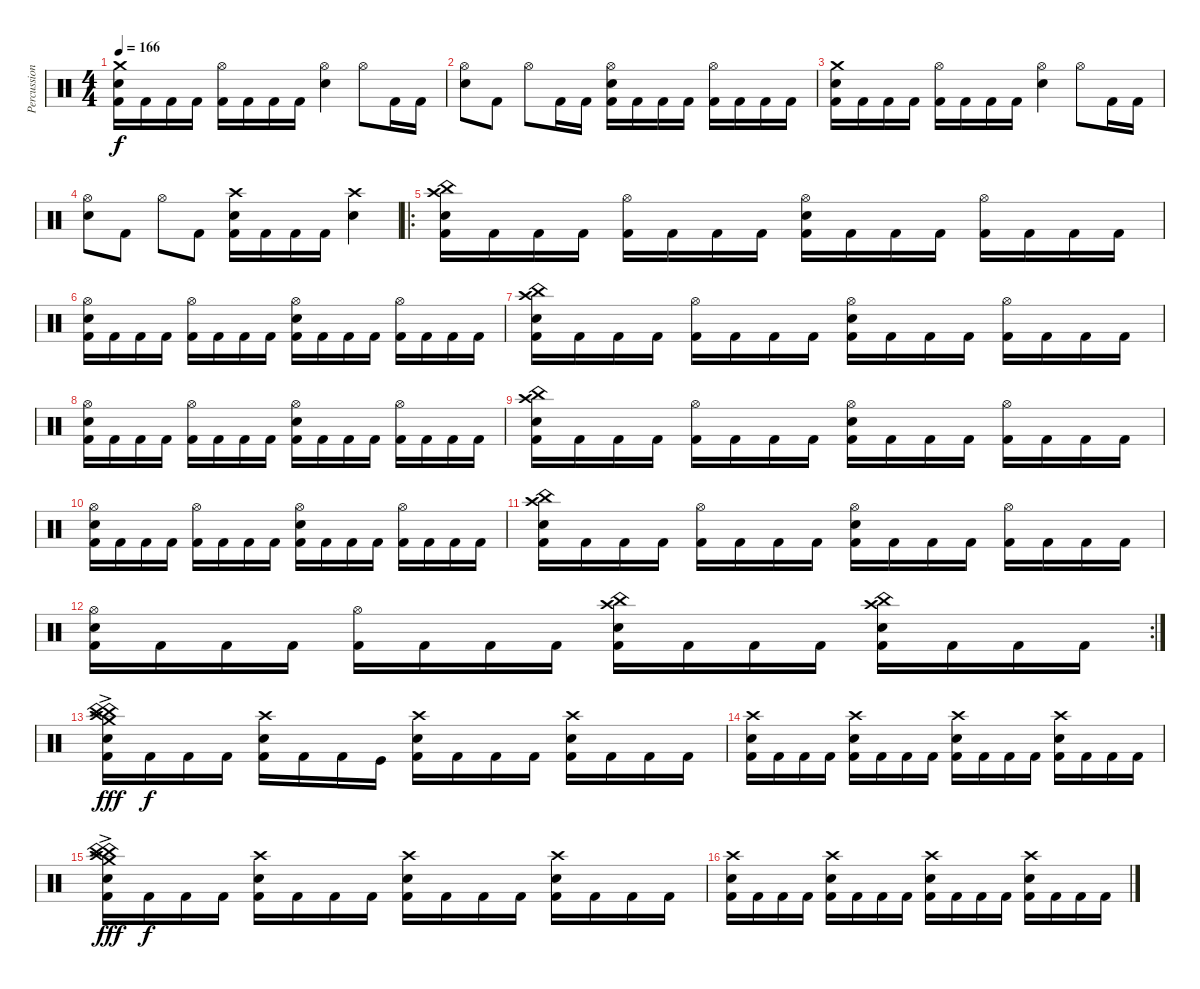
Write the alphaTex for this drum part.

\track ("Percussion" "Percussion") {instrument percussion}
\staff {score}
\articulation defaults
\ts (4 4)
\tempo 166
\clef neutral
\ks c
("Crash medium (hit)" "Electric Snare (hit)" "Kick (hit) 2").16{dy f} "Kick (hit) 2".16 "Kick (hit) 2".16 "Kick (hit) 2".16 ("Hi-Hat (open)" "Kick (hit) 2").16 "Kick (hit) 2".16 "Kick (hit) 2".16 "Kick (hit) 2".16 ("Hi-Hat (open)" "Electric Snare (hit)").4 "Hi-Hat (open)".8 "Kick (hit) 2".16 "Kick (hit) 2".16 |
("Hi-Hat (open)" "Electric Snare (hit)").8 "Kick (hit) 2".8 "Hi-Hat (open)".8 "Kick (hit) 2".16 "Kick (hit) 2".16 ("Hi-Hat (open)" "Electric Snare (hit)" "Kick (hit) 2").16 "Kick (hit) 2".16 "Kick (hit) 2".16 "Kick (hit) 2".16 ("Hi-Hat (open)" "Kick (hit) 2").16 "Kick (hit) 2".16 "Kick (hit) 2".16 "Kick (hit) 2".16 |
("Crash medium (hit)" "Electric Snare (hit)" "Kick (hit) 2").16 "Kick (hit) 2".16 "Kick (hit) 2".16 "Kick (hit) 2".16 ("Hi-Hat (open)" "Kick (hit) 2").16 "Kick (hit) 2".16 "Kick (hit) 2".16 "Kick (hit) 2".16 ("Hi-Hat (open)" "Electric Snare (hit)").4 "Hi-Hat (open)".8 "Kick (hit) 2".16 "Kick (hit) 2".16 |
("Hi-Hat (open)" "Electric Snare (hit)").8 "Kick (hit) 2".8 "Hi-Hat (open)".8 "Kick (hit) 2".8 ("Crash high (hit)" "Electric Snare (hit)" "Kick (hit) 2").16 "Kick (hit) 2".16 "Kick (hit) 2".16 "Kick (hit) 2".16 ("Crash high (hit)" "Electric Snare (hit)").4 |
\ro
("Crash high (hit)" "China (hit)" "Electric Snare (hit)" "Kick (hit) 2").16 "Kick (hit) 2".16 "Kick (hit) 2".16 "Kick (hit) 2".16 ("Hi-Hat (open)" "Kick (hit) 2").16 "Kick (hit) 2".16 "Kick (hit) 2".16 "Kick (hit) 2".16 ("Hi-Hat (open)" "Electric Snare (hit)" "Kick (hit) 2").16 "Kick (hit) 2".16 "Kick (hit) 2".16 "Kick (hit) 2".16 ("Hi-Hat (open)" "Kick (hit) 2").16 "Kick (hit) 2".16 "Kick (hit) 2".16 "Kick (hit) 2".16 |
("Hi-Hat (open)" "Electric Snare (hit)" "Kick (hit) 2").16 "Kick (hit) 2".16 "Kick (hit) 2".16 "Kick (hit) 2".16 ("Hi-Hat (open)" "Kick (hit) 2").16 "Kick (hit) 2".16 "Kick (hit) 2".16 "Kick (hit) 2".16 ("Hi-Hat (open)" "Electric Snare (hit)" "Kick (hit) 2").16 "Kick (hit) 2".16 "Kick (hit) 2".16 "Kick (hit) 2".16 ("Hi-Hat (open)" "Kick (hit) 2").16 "Kick (hit) 2".16 "Kick (hit) 2".16 "Kick (hit) 2".16 |
("Crash high (hit)" "China (hit)" "Electric Snare (hit)" "Kick (hit) 2").16 "Kick (hit) 2".16 "Kick (hit) 2".16 "Kick (hit) 2".16 ("Hi-Hat (open)" "Kick (hit) 2").16 "Kick (hit) 2".16 "Kick (hit) 2".16 "Kick (hit) 2".16 ("Hi-Hat (open)" "Electric Snare (hit)" "Kick (hit) 2").16 "Kick (hit) 2".16 "Kick (hit) 2".16 "Kick (hit) 2".16 ("Hi-Hat (open)" "Kick (hit) 2").16 "Kick (hit) 2".16 "Kick (hit) 2".16 "Kick (hit) 2".16 |
("Hi-Hat (open)" "Electric Snare (hit)" "Kick (hit) 2").16 "Kick (hit) 2".16 "Kick (hit) 2".16 "Kick (hit) 2".16 ("Hi-Hat (open)" "Kick (hit) 2").16 "Kick (hit) 2".16 "Kick (hit) 2".16 "Kick (hit) 2".16 ("Hi-Hat (open)" "Electric Snare (hit)" "Kick (hit) 2").16 "Kick (hit) 2".16 "Kick (hit) 2".16 "Kick (hit) 2".16 ("Hi-Hat (open)" "Kick (hit) 2").16 "Kick (hit) 2".16 "Kick (hit) 2".16 "Kick (hit) 2".16 |
("Crash high (hit)" "China (hit)" "Electric Snare (hit)" "Kick (hit) 2").16 "Kick (hit) 2".16 "Kick (hit) 2".16 "Kick (hit) 2".16 ("Hi-Hat (open)" "Kick (hit) 2").16 "Kick (hit) 2".16 "Kick (hit) 2".16 "Kick (hit) 2".16 ("Hi-Hat (open)" "Electric Snare (hit)" "Kick (hit) 2").16 "Kick (hit) 2".16 "Kick (hit) 2".16 "Kick (hit) 2".16 ("Hi-Hat (open)" "Kick (hit) 2").16 "Kick (hit) 2".16 "Kick (hit) 2".16 "Kick (hit) 2".16 |
("Hi-Hat (open)" "Electric Snare (hit)" "Kick (hit) 2").16 "Kick (hit) 2".16 "Kick (hit) 2".16 "Kick (hit) 2".16 ("Hi-Hat (open)" "Kick (hit) 2").16 "Kick (hit) 2".16 "Kick (hit) 2".16 "Kick (hit) 2".16 ("Hi-Hat (open)" "Electric Snare (hit)" "Kick (hit) 2").16 "Kick (hit) 2".16 "Kick (hit) 2".16 "Kick (hit) 2".16 ("Hi-Hat (open)" "Kick (hit) 2").16 "Kick (hit) 2".16 "Kick (hit) 2".16 "Kick (hit) 2".16 |
("Crash high (hit)" "China (hit)" "Electric Snare (hit)" "Kick (hit) 2").16 "Kick (hit) 2".16 "Kick (hit) 2".16 "Kick (hit) 2".16 ("Hi-Hat (open)" "Kick (hit) 2").16 "Kick (hit) 2".16 "Kick (hit) 2".16 "Kick (hit) 2".16 ("Hi-Hat (open)" "Electric Snare (hit)" "Kick (hit) 2").16 "Kick (hit) 2".16 "Kick (hit) 2".16 "Kick (hit) 2".16 ("Hi-Hat (open)" "Kick (hit) 2").16 "Kick (hit) 2".16 "Kick (hit) 2".16 "Kick (hit) 2".16 |
\rc 2
("Hi-Hat (open)" "Electric Snare (hit)" "Kick (hit) 2").16 "Kick (hit) 2".16 "Kick (hit) 2".16 "Kick (hit) 2".16 ("Hi-Hat (open)" "Kick (hit) 2").16 "Kick (hit) 2".16 "Kick (hit) 2".16 "Kick (hit) 2".16 ("Crash high (hit)" "China (hit)" "Electric Snare (hit)" "Kick (hit) 2").16 "Kick (hit) 2".16 "Kick (hit) 2".16 "Kick (hit) 2".16 ("Crash high (hit)" "China (hit)" "Electric Snare (hit)" "Kick (hit) 2").16 "Kick (hit) 2".16 "Kick (hit) 2".16 "Kick (hit) 2".16 |
("Crash high (hit)" "China (hit)"{ac} "Electric Snare (hit)" "China (hit)"{ac} "Crash medium (hit)" "Kick (hit) 2").16{dy fff} "Kick (hit) 2".16{dy f} "Kick (hit) 2".16 "Kick (hit) 2".16 ("Crash high (hit)" "Electric Snare (hit)" "Kick (hit) 2").16 "Kick (hit) 2".16 "Kick (hit) 2".16 "Kick (hit)".16 ("Crash high (hit)" "Electric Snare (hit)" "Kick (hit) 2").16 "Kick (hit) 2".16 "Kick (hit) 2".16 "Kick (hit) 2".16 ("Crash high (hit)" "Electric Snare (hit)" "Kick (hit) 2").16 "Kick (hit) 2".16 "Kick (hit) 2".16 "Kick (hit) 2".16 |
("Crash high (hit)" "Electric Snare (hit)" "Kick (hit) 2").16 "Kick (hit) 2".16 "Kick (hit) 2".16 "Kick (hit) 2".16 ("Crash high (hit)" "Electric Snare (hit)" "Kick (hit) 2").16 "Kick (hit) 2".16 "Kick (hit) 2".16 "Kick (hit) 2".16 ("Crash high (hit)" "Electric Snare (hit)" "Kick (hit) 2").16 "Kick (hit) 2".16 "Kick (hit) 2".16 "Kick (hit) 2".16 ("Crash high (hit)" "Electric Snare (hit)" "Kick (hit) 2").16 "Kick (hit) 2".16 "Kick (hit) 2".16 "Kick (hit) 2".16 |
("Crash high (hit)" "China (hit)"{ac} "Electric Snare (hit)" "China (hit)"{ac} "Crash medium (hit)" "Kick (hit) 2").16{dy fff} "Kick (hit) 2".16{dy f} "Kick (hit) 2".16 "Kick (hit) 2".16 ("Crash high (hit)" "Electric Snare (hit)" "Kick (hit) 2").16 "Kick (hit) 2".16 "Kick (hit) 2".16 "Kick (hit) 2".16 ("Crash high (hit)" "Electric Snare (hit)" "Kick (hit) 2").16 "Kick (hit) 2".16 "Kick (hit) 2".16 "Kick (hit) 2".16 ("Crash high (hit)" "Electric Snare (hit)" "Kick (hit) 2").16 "Kick (hit) 2".16 "Kick (hit) 2".16 "Kick (hit) 2".16 |
("Crash high (hit)" "Electric Snare (hit)" "Kick (hit) 2").16 "Kick (hit) 2".16 "Kick (hit) 2".16 "Kick (hit) 2".16 ("Crash high (hit)" "Electric Snare (hit)" "Kick (hit) 2").16 "Kick (hit) 2".16 "Kick (hit) 2".16 "Kick (hit) 2".16 ("Crash high (hit)" "Electric Snare (hit)" "Kick (hit) 2").16 "Kick (hit) 2".16 "Kick (hit) 2".16 "Kick (hit) 2".16 ("Crash high (hit)" "Electric Snare (hit)" "Kick (hit) 2").16 "Kick (hit) 2".16 "Kick (hit) 2".16 "Kick (hit) 2".16
